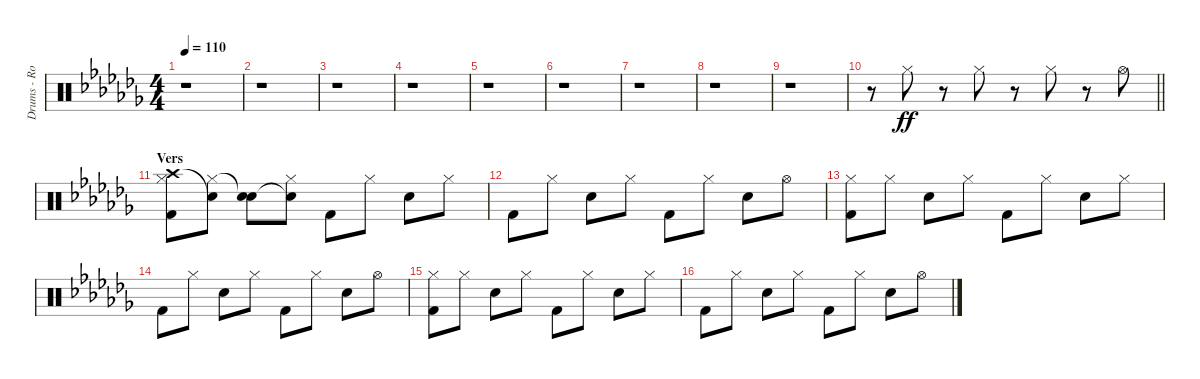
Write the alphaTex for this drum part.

\track ("Drums - Rob Bourdon" "Drums - Ro") {instrument percussion}
\staff {score}
\articulation defaults
\ts (4 4)
\tempo 110
\clef neutral
\ks abminor
r.1{dy ff} |
r.1 |
r.1 |
r.1 |
r.1 |
r.1 |
r.1 |
r.1 |
r.1 |
\barLineRight lightlight
r.8 "Hi-Hat (closed)".8 r.8 "Hi-Hat (closed)".8 r.8 "Hi-Hat (closed)".8 r.8 "Hi-Hat (open)".8 |
\section ("" "Vers")
("Hi-Hat (closed)" "Crash high (hit)" "Kick (hit) 2").8 ("Hi-Hat (closed)" "Snare (hit)"{t}).8 ("Snare (hit)"{t} "Electric Snare (hit)").8 ("Hi-Hat (closed)" "Snare (hit)"{t}).8 "Kick (hit) 2".8 "Hi-Hat (closed)".8 "Electric Snare (hit)".8 "Hi-Hat (closed)".8 |
"Kick (hit) 2".8 "Hi-Hat (closed)".8 "Electric Snare (hit)".8 "Hi-Hat (closed)".8 "Kick (hit) 2".8 "Hi-Hat (closed)".8 "Electric Snare (hit)".8 "Hi-Hat (open)".8 |
("Hi-Hat (closed)" "Kick (hit) 2").8 "Hi-Hat (closed)".8 "Electric Snare (hit)".8 "Hi-Hat (closed)".8 "Kick (hit) 2".8 "Hi-Hat (closed)".8 "Electric Snare (hit)".8 "Hi-Hat (closed)".8 |
"Kick (hit) 2".8 "Hi-Hat (closed)".8 "Electric Snare (hit)".8 "Hi-Hat (closed)".8 "Kick (hit) 2".8 "Hi-Hat (closed)".8 "Electric Snare (hit)".8 "Hi-Hat (open)".8 |
("Hi-Hat (closed)" "Kick (hit) 2").8 "Hi-Hat (closed)".8 "Electric Snare (hit)".8 "Hi-Hat (closed)".8 "Kick (hit) 2".8 "Hi-Hat (closed)".8 "Electric Snare (hit)".8 "Hi-Hat (closed)".8 |
"Kick (hit) 2".8 "Hi-Hat (closed)".8 "Electric Snare (hit)".8 "Hi-Hat (closed)".8 "Kick (hit) 2".8 "Hi-Hat (closed)".8 "Electric Snare (hit)".8 "Hi-Hat (open)".8
